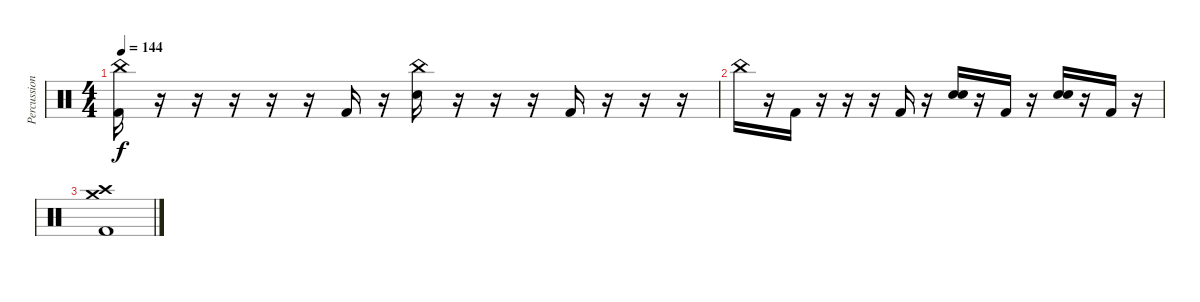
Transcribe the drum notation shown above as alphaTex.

\track ("Percussion" "Percussion") {instrument percussion}
\staff {score}
\articulation defaults
\ts (4 4)
\tempo 144
\clef neutral
\ks c
("China (hit)" "Kick (hit) 2").16{dy f} r.16 r.16 r.16 r.16 r.16 "Kick (hit) 2".16 r.16 ("China (hit)" "Electric Snare (hit)").16 r.16 r.16 r.16 "Kick (hit) 2".16 r.16 r.16 r.16 |
"China (hit)".16 r.16 "Kick (hit) 2".16 r.16 r.16 r.16 "Kick (hit) 2".16 r.16 ("Electric Snare (hit)" "Electric Snare (hit)").16{bd 480} r.16 "Kick (hit) 2".16 r.16 ("Electric Snare (hit)" "Electric Snare (hit)").16{bd 480} r.16 "Kick (hit) 2".16 r.16 |
("Crash medium (hit)" "Crash high (hit)" "Kick (hit) 2").1
